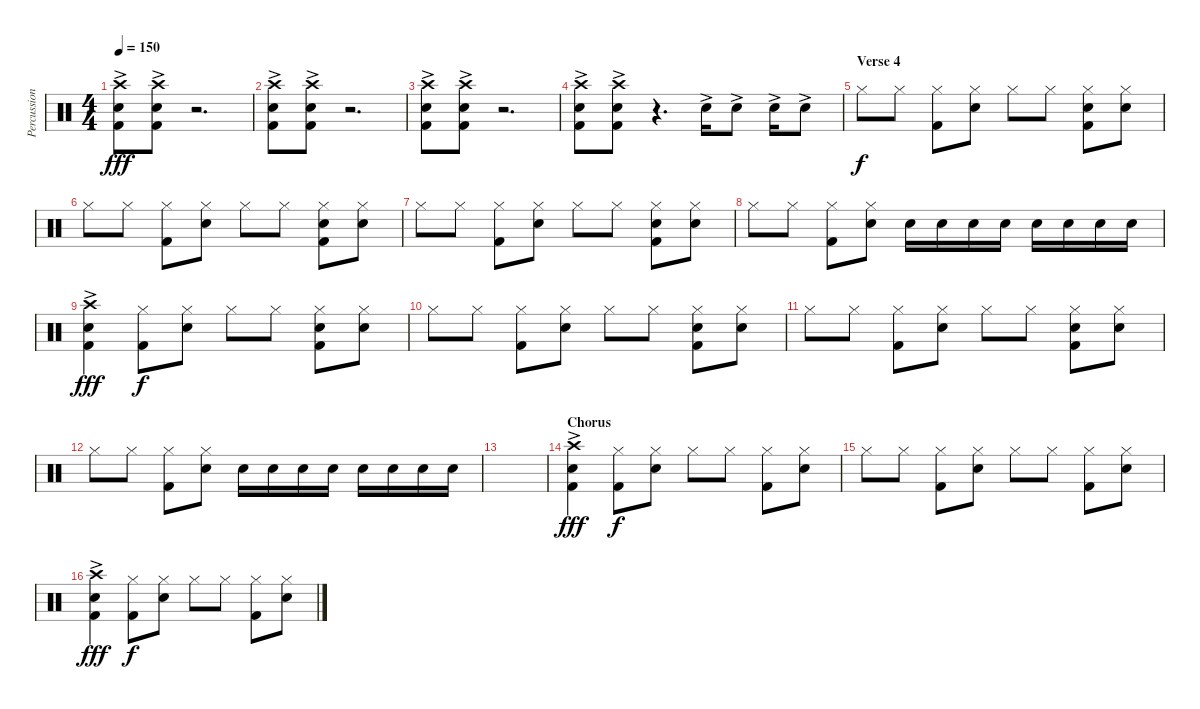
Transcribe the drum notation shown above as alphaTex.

\track ("Percussion" "Percussion") {instrument percussion}
\staff {score}
\articulation defaults
\ts (4 4)
\tempo 150
\clef neutral
\ks c
("Crash high (hit)"{ac} "Kick (hit) 2"{ac} "Electric Snare (hit)"{ac}).8{dy fff} ("Crash high (hit)"{ac} "Kick (hit) 2"{ac} "Electric Snare (hit)"{ac}).8 r.2{d} |
("Crash high (hit)"{ac} "Kick (hit) 2"{ac} "Electric Snare (hit)"{ac}).8 ("Crash high (hit)"{ac} "Kick (hit) 2"{ac} "Electric Snare (hit)"{ac}).8 r.2{d} |
("Crash high (hit)"{ac} "Kick (hit) 2"{ac} "Electric Snare (hit)"{ac}).8 ("Crash high (hit)"{ac} "Kick (hit) 2"{ac} "Electric Snare (hit)"{ac}).8 r.2{d} |
("Crash high (hit)"{ac} "Kick (hit) 2"{ac} "Electric Snare (hit)"{ac}).8 ("Crash high (hit)"{ac} "Kick (hit) 2"{ac} "Electric Snare (hit)"{ac}).8 r.4{d} "Electric Snare (hit)"{ac}.16 "Electric Snare (hit)"{ac}.8 "Electric Snare (hit)"{ac}.16 "Electric Snare (hit)"{ac}.8 |
\section ("" "Verse 4")
"Hi-Hat (closed)".8{dy f} "Hi-Hat (closed)".8 ("Hi-Hat (closed)" "Kick (hit) 2").8 ("Hi-Hat (closed)" "Electric Snare (hit)").8 "Hi-Hat (closed)".8 "Hi-Hat (closed)".8 ("Hi-Hat (closed)" "Electric Snare (hit)" "Kick (hit) 2").8 ("Hi-Hat (closed)" "Electric Snare (hit)").8 |
"Hi-Hat (closed)".8 "Hi-Hat (closed)".8 ("Hi-Hat (closed)" "Kick (hit) 2").8 ("Hi-Hat (closed)" "Electric Snare (hit)").8 "Hi-Hat (closed)".8 "Hi-Hat (closed)".8 ("Hi-Hat (closed)" "Electric Snare (hit)" "Kick (hit) 2").8 ("Hi-Hat (closed)" "Electric Snare (hit)").8 |
"Hi-Hat (closed)".8 "Hi-Hat (closed)".8 ("Hi-Hat (closed)" "Kick (hit) 2").8 ("Hi-Hat (closed)" "Electric Snare (hit)").8 "Hi-Hat (closed)".8 "Hi-Hat (closed)".8 ("Hi-Hat (closed)" "Electric Snare (hit)" "Kick (hit) 2").8 ("Hi-Hat (closed)" "Electric Snare (hit)").8 |
"Hi-Hat (closed)".8 "Hi-Hat (closed)".8 ("Hi-Hat (closed)" "Kick (hit) 2").8 ("Hi-Hat (closed)" "Electric Snare (hit)").8 "Electric Snare (hit)".16 "Electric Snare (hit)".16 "Electric Snare (hit)".16 "Electric Snare (hit)".16 "Electric Snare (hit)".16 "Electric Snare (hit)".16 "Electric Snare (hit)".16 "Electric Snare (hit)".16 |
("Crash high (hit)"{ac} "Kick (hit) 2"{ac} "Electric Snare (hit)"{ac}).4{dy fff} ("Hi-Hat (closed)" "Kick (hit) 2").8{dy f} ("Hi-Hat (closed)" "Electric Snare (hit)").8 "Hi-Hat (closed)".8 "Hi-Hat (closed)".8 ("Hi-Hat (closed)" "Electric Snare (hit)" "Kick (hit) 2").8 ("Hi-Hat (closed)" "Electric Snare (hit)").8 |
"Hi-Hat (closed)".8 "Hi-Hat (closed)".8 ("Hi-Hat (closed)" "Kick (hit) 2").8 ("Hi-Hat (closed)" "Electric Snare (hit)").8 "Hi-Hat (closed)".8 "Hi-Hat (closed)".8 ("Hi-Hat (closed)" "Electric Snare (hit)" "Kick (hit) 2").8 ("Hi-Hat (closed)" "Electric Snare (hit)").8 |
"Hi-Hat (closed)".8 "Hi-Hat (closed)".8 ("Hi-Hat (closed)" "Kick (hit) 2").8 ("Hi-Hat (closed)" "Electric Snare (hit)").8 "Hi-Hat (closed)".8 "Hi-Hat (closed)".8 ("Hi-Hat (closed)" "Electric Snare (hit)" "Kick (hit) 2").8 ("Hi-Hat (closed)" "Electric Snare (hit)").8 |
"Hi-Hat (closed)".8 "Hi-Hat (closed)".8 ("Hi-Hat (closed)" "Kick (hit) 2").8 ("Hi-Hat (closed)" "Electric Snare (hit)").8 "Electric Snare (hit)".16 "Electric Snare (hit)".16 "Electric Snare (hit)".16 "Electric Snare (hit)".16 "Electric Snare (hit)".16 "Electric Snare (hit)".16 "Electric Snare (hit)".16 "Electric Snare (hit)".16 |
|
\section ("" "Chorus")
("Crash high (hit)"{ac} "Kick (hit) 2"{ac} "Electric Snare (hit)"{ac}).4{dy fff} ("Hi-Hat (closed)" "Kick (hit) 2").8{dy f} ("Hi-Hat (closed)" "Electric Snare (hit)").8 "Hi-Hat (closed)".8 "Hi-Hat (closed)".8 ("Hi-Hat (closed)" "Kick (hit) 2").8 ("Hi-Hat (closed)" "Electric Snare (hit)").8 |
"Hi-Hat (closed)".8 "Hi-Hat (closed)".8 ("Hi-Hat (closed)" "Kick (hit) 2").8 ("Hi-Hat (closed)" "Electric Snare (hit)").8 "Hi-Hat (closed)".8 "Hi-Hat (closed)".8 ("Hi-Hat (closed)" "Kick (hit) 2").8 ("Hi-Hat (closed)" "Electric Snare (hit)").8 |
("Crash high (hit)"{ac} "Kick (hit) 2"{ac} "Electric Snare (hit)"{ac}).4{dy fff} ("Hi-Hat (closed)" "Kick (hit) 2").8{dy f} ("Hi-Hat (closed)" "Electric Snare (hit)").8 "Hi-Hat (closed)".8 "Hi-Hat (closed)".8 ("Hi-Hat (closed)" "Kick (hit) 2").8 ("Hi-Hat (closed)" "Electric Snare (hit)").8
